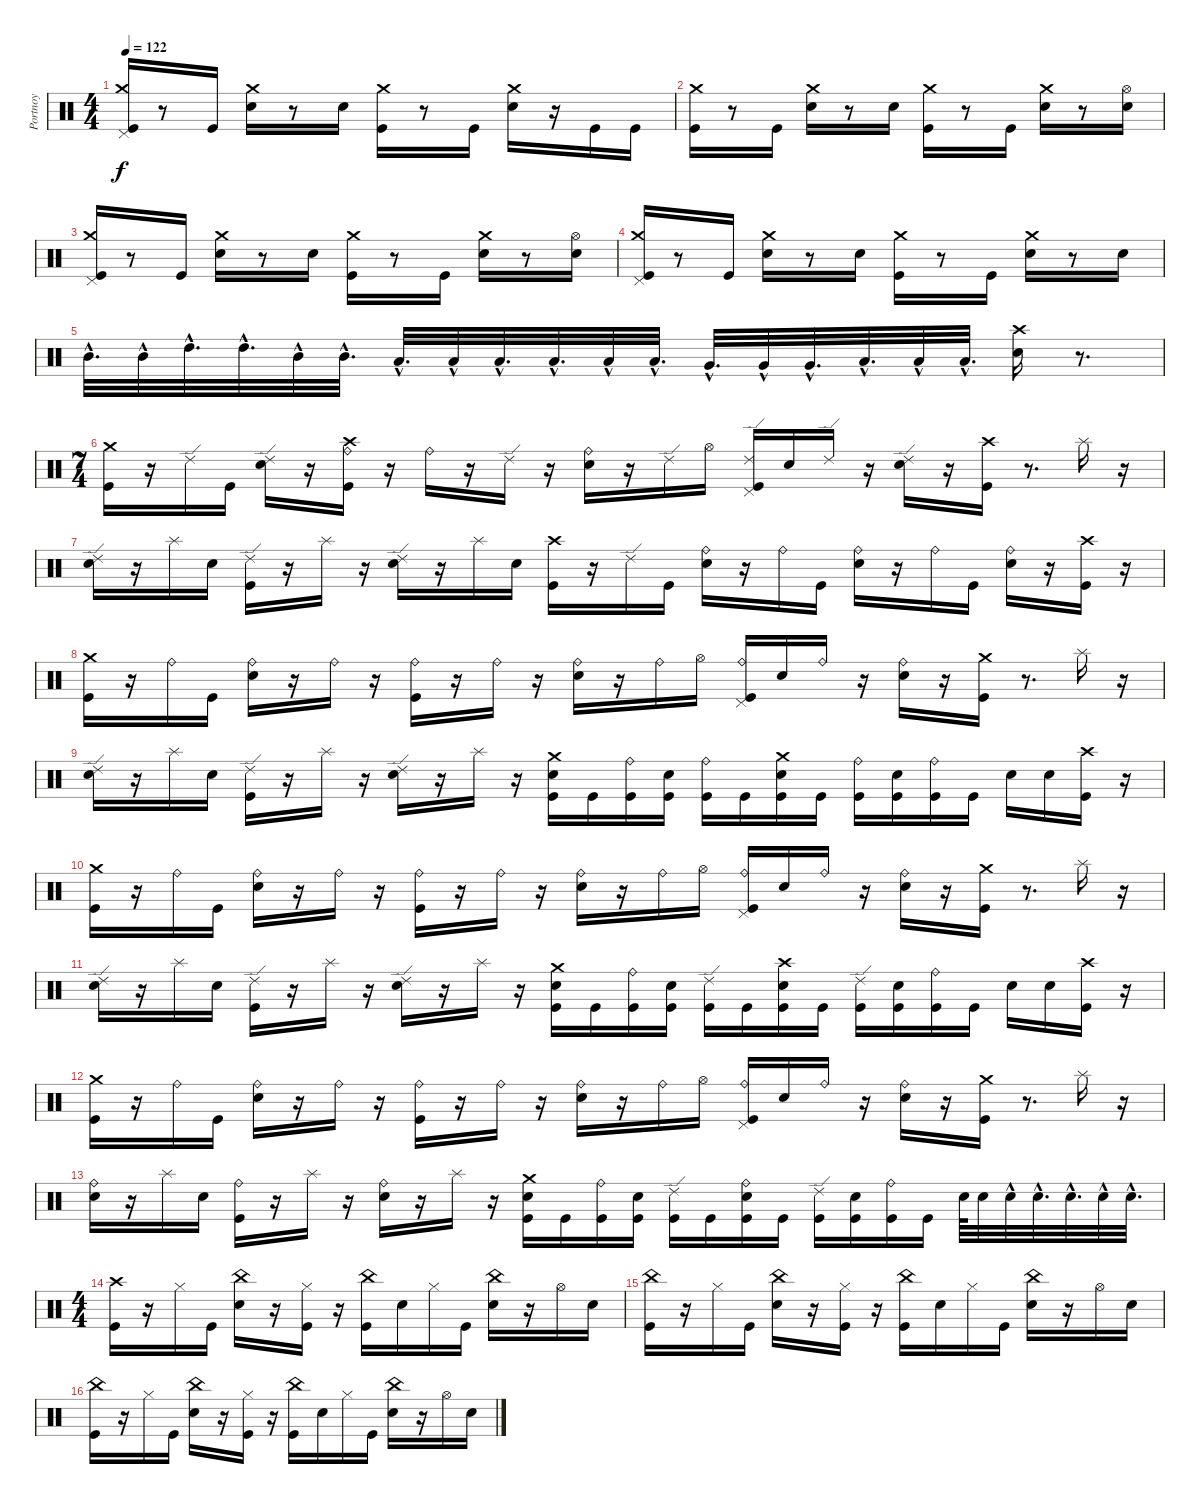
\track ("Portnoy" "Portnoy") {instrument percussion}
\staff {score}
\articulation defaults
\ts (4 4)
\tempo 122
\clef neutral
\ks c
("Pedal Hi-Hat (hit)" "Crash medium (hit)" "Kick (hit)").16{dy f} r.8 "Kick (hit)".16 ("Crash medium (hit)" "Metronome (bell)").16 r.8 "Metronome (bell)".16 ("Crash medium (hit)" "Kick (hit)").16 r.8 "Kick (hit)".16 ("Crash medium (hit)" "Metronome (bell)").16 r.16 "Kick (hit)".16 "Kick (hit)".16 |
("Crash medium (hit)" "Kick (hit)").16 r.8 "Kick (hit)".16 ("Crash medium (hit)" "Metronome (bell)").16 r.8 "Metronome (bell)".16 ("Crash medium (hit)" "Kick (hit)").16 r.8 "Kick (hit)".16 ("Crash medium (hit)" "Metronome (bell)").16 r.8 ("Hi-Hat (open)" "Metronome (bell)").16 |
("Pedal Hi-Hat (hit)" "Crash medium (hit)" "Kick (hit)").16 r.8 "Kick (hit)".16 ("Crash medium (hit)" "Metronome (bell)").16 r.8 "Metronome (bell)".16 ("Crash medium (hit)" "Kick (hit)").16 r.8 "Kick (hit)".16 ("Crash medium (hit)" "Metronome (bell)").16 r.8 ("Hi-Hat (open)" "Metronome (bell)").16 |
("Pedal Hi-Hat (hit)" "Crash medium (hit)" "Kick (hit)").16 r.8 "Kick (hit)".16 ("Crash medium (hit)" "Metronome (bell)").16 r.8 "Metronome (bell)".16 ("Crash medium (hit)" "Kick (hit)").16 r.8 "Kick (hit)".16 ("Crash medium (hit)" "Metronome (bell)").16 r.8 "Metronome (bell)".16 |
"Mid Tom (hit)"{hac}.32{d} "Mid Tom (hit)"{hac}.32 "High Tom (hit)"{hac}.32{d} "High Tom (hit)"{hac}.32{d} "Mid Tom (hit)"{hac}.32 "Mid Tom (hit)"{hac}.32{d} "Low Tom (hit)"{hac}.32{d} "Low Tom (hit)"{hac}.32 "Low Tom (hit)"{hac}.32{d} "Low Tom (hit)"{hac}.32{d} "Low Tom (hit)"{hac}.32 "Low Tom (hit)"{hac}.32{d} "Very Low Tom (hit)"{hac}.32{d} "Very Low Tom (hit)"{hac}.32 "Very Low Tom (hit)"{hac}.32{d} "Low Floor Tom (hit)"{hac}.32{d} "Low Floor Tom (hit)"{hac}.32 "Low Floor Tom (hit)"{hac}.32{d} ("Crash high (hit)" "Metronome (bell)").16 r.8{d} |
\ts (7 4)
("Crash medium (hit)" "Kick (hit)").16 r.16 "Ride (edge) 2".16 "Kick (hit)".16 ("Ride (edge) 2" "Metronome (bell)").16 r.16 ("Crash high (hit)" "Ride (bell)" "Kick (hit)").16 r.16 "Ride (bell)".16 r.16 "Ride (edge) 2".16 r.16 ("Metronome (bell)" "Ride (bell)").16 r.16 "Ride (edge) 2".16 "Hi-Hat (open)".16 ("Pedal Hi-Hat (hit)" "Kick (hit)" "Ride (edge) 2").16 "Metronome (bell)".16 "Ride (edge) 2".16 r.16 ("Ride (edge) 2" "Metronome (bell)").16 r.16 ("Crash high (hit)" "Kick (hit)").16 r.8{d} "Splash (hit)".16 r.16 |
("Ride (edge) 2" "Metronome (bell)").16 r.16 "Splash (hit)".16 "Metronome (bell)".16 ("Ride (edge) 2" "Kick (hit)").16 r.16 "Splash (hit)".16 r.16 ("Ride (edge) 2" "Metronome (bell)").16 r.16 "Splash (hit)".16 "Metronome (bell)".16 ("Crash high (hit)" "Kick (hit)").16 r.16 "Ride (edge) 2".16 "Kick (hit)".16 ("Ride (bell)" "Metronome (bell)").16 r.16 "Ride (bell)".16 "Kick (hit)".16 ("Ride (bell)" "Metronome (bell)").16 r.16 "Ride (bell)".16 "Kick (hit)".16 ("Ride (bell)" "Metronome (bell)").16 r.16 ("Crash high (hit)" "Kick (hit)").16 r.16 |
("Crash medium (hit)" "Kick (hit)").16 r.16 "Ride (bell)".16 "Kick (hit)".16 ("Metronome (bell)" "Ride (bell)").16 r.16 "Ride (bell)".16 r.16 ("Kick (hit)" "Ride (bell)").16 r.16 "Ride (bell)".16 r.16 ("Metronome (bell)" "Ride (bell)").16 r.16 "Ride (bell)".16 "Hi-Hat (open)".16 ("Pedal Hi-Hat (hit)" "Kick (hit)" "Ride (bell)").16 "Metronome (bell)".16 "Ride (bell)".16 r.16 ("Metronome (bell)" "Ride (bell)").16 r.16 ("Crash medium (hit)" "Kick (hit)").16 r.8{d} "Splash (hit)".16 r.16 |
("Ride (edge) 2" "Metronome (bell)").16 r.16 "Splash (hit)".16 "Metronome (bell)".16 ("Ride (edge) 2" "Kick (hit)").16 r.16 "Splash (hit)".16 r.16 ("Ride (edge) 2" "Metronome (bell)").16 r.16 "Splash (hit)".16 r.16 ("Kick (hit)" "Metronome (bell)" "Crash medium (hit)").16 "Kick (hit)".16 ("Ride (bell)" "Kick (hit)").16 ("Metronome (bell)" "Kick (hit)").16 ("Kick (hit)" "Ride (bell)").16 "Kick (hit)".16 ("Crash medium (hit)" "Metronome (bell)" "Kick (hit)").16 "Kick (hit)".16 ("Ride (bell)" "Kick (hit)").16 ("Metronome (bell)" "Kick (hit)").16 ("Ride (bell)" "Kick (hit)").16 "Kick (hit)".16 "Metronome (bell)".16 "Metronome (bell)".16 ("Crash high (hit)" "Kick (hit)").16 r.16 |
("Crash medium (hit)" "Kick (hit)").16 r.16 "Ride (bell)".16 "Kick (hit)".16 ("Metronome (bell)" "Ride (bell)").16 r.16 "Ride (bell)".16 r.16 ("Kick (hit)" "Ride (bell)").16 r.16 "Ride (bell)".16 r.16 ("Metronome (bell)" "Ride (bell)").16 r.16 "Ride (bell)".16 "Hi-Hat (open)".16 ("Pedal Hi-Hat (hit)" "Kick (hit)" "Ride (bell)").16 "Metronome (bell)".16 "Ride (bell)".16 r.16 ("Metronome (bell)" "Ride (bell)").16 r.16 ("Crash medium (hit)" "Kick (hit)").16 r.8{d} "Splash (hit)".16 r.16 |
("Ride (edge) 2" "Metronome (bell)").16 r.16 "Splash (hit)".16 "Metronome (bell)".16 ("Ride (edge) 2" "Kick (hit)").16 r.16 "Splash (hit)".16 r.16 ("Ride (edge) 2" "Metronome (bell)").16 r.16 "Splash (hit)".16 r.16 ("Metronome (bell)" "Crash medium (hit)" "Kick (hit)").16 "Kick (hit)".16 ("Ride (bell)" "Kick (hit)").16 ("Metronome (bell)" "Kick (hit)").16 ("Kick (hit)" "Ride (edge) 2").16 "Kick (hit)".16 ("Crash high (hit)" "Metronome (bell)" "Kick (hit)").16 "Kick (hit)".16 ("Kick (hit)" "Ride (edge) 2").16 ("Metronome (bell)" "Kick (hit)").16 ("Kick (hit)" "Ride (bell)").16 "Kick (hit)".16 "Metronome (bell)".16 "Metronome (bell)".16 ("Crash high (hit)" "Kick (hit)").16 r.16 |
("Crash medium (hit)" "Kick (hit)").16 r.16 "Ride (bell)".16 "Kick (hit)".16 ("Metronome (bell)" "Ride (bell)").16 r.16 "Ride (bell)".16 r.16 ("Kick (hit)" "Ride (bell)").16 r.16 "Ride (bell)".16 r.16 ("Metronome (bell)" "Ride (bell)").16 r.16 "Ride (bell)".16 "Hi-Hat (open)".16 ("Pedal Hi-Hat (hit)" "Kick (hit)" "Ride (bell)").16 "Metronome (bell)".16 "Ride (bell)".16 r.16 ("Metronome (bell)" "Ride (bell)").16 r.16 ("Crash medium (hit)" "Kick (hit)").16 r.8{d} "Splash (hit)".16 r.16 |
("Ride (bell)" "Metronome (bell)").16 r.16 "Splash (hit)".16 "Metronome (bell)".16 ("Ride (bell)" "Kick (hit)").16 r.16 "Splash (hit)".16 r.16 ("Ride (bell)" "Metronome (bell)").16 r.16 "Splash (hit)".16 r.16 ("Metronome (bell)" "Crash medium (hit)" "Kick (hit)").16 "Kick (hit)".16 ("Ride (bell)" "Kick (hit)").16 ("Metronome (bell)" "Kick (hit)").16 ("Kick (hit)" "Ride (edge) 2").16 "Kick (hit)".16 ("Metronome (bell)" "Kick (hit)" "Ride (bell)").16 "Kick (hit)".16 ("Kick (hit)" "Ride (edge) 2").16 ("Metronome (bell)" "Kick (hit)").16 ("Kick (hit)" "Ride (bell)").16 "Kick (hit)".16 "Metronome (bell)".64 "Metronome (bell)".32 "Metronome (bell)"{hac}.32 "Metronome (bell)"{hac}.32{d} "Metronome (bell)"{hac}.32{d} "Metronome (bell)"{hac}.32 "Metronome (bell)"{hac}.32{d} |
\ts (4 4)
("Crash high (hit)" "Kick (hit)").16 r.16 "Hi-Hat (closed)".16 "Kick (hit)".16 ("China (hit)" "Metronome (bell)").16 r.16 ("Hi-Hat (closed)" "Kick (hit)").16 r.16 ("China (hit)" "Kick (hit)").16 "Metronome (bell)".16 "Hi-Hat (closed)".16 "Kick (hit)".16 ("China (hit)" "Metronome (bell)").16 r.16 "Hi-Hat (open)".16 "Metronome (bell)".16 |
("China (hit)" "Kick (hit)").16 r.16 "Hi-Hat (closed)".16 "Kick (hit)".16 ("China (hit)" "Metronome (bell)").16 r.16 ("Hi-Hat (closed)" "Kick (hit)").16 r.16 ("China (hit)" "Kick (hit)").16 "Metronome (bell)".16 "Hi-Hat (closed)".16 "Kick (hit)".16 ("China (hit)" "Metronome (bell)").16 r.16 "Hi-Hat (open)".16 "Metronome (bell)".16 |
("China (hit)" "Kick (hit)").16 r.16 "Hi-Hat (closed)".16 "Kick (hit)".16 ("China (hit)" "Metronome (bell)").16 r.16 ("Hi-Hat (closed)" "Kick (hit)").16 r.16 ("China (hit)" "Kick (hit)").16 "Metronome (bell)".16 "Hi-Hat (closed)".16 "Kick (hit)".16 ("China (hit)" "Metronome (bell)").16 r.16 "Hi-Hat (open)".16 "Metronome (bell)".16
